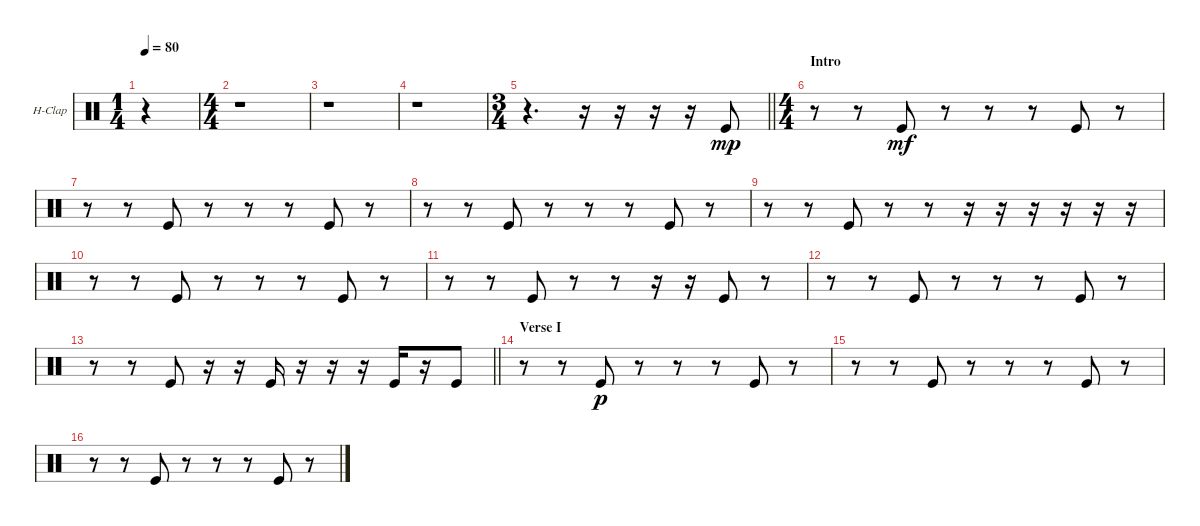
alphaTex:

\bracketExtendMode groupsimilarinstruments
\firstSystemTrackNameOrientation horizontal
\otherSystemsTrackNameOrientation horizontal
\track ("Hand Clap" "H-Clap") {instrument percussion}
\staff {score}
\articulation defaults
\voice
\ts (1 4)
\beaming (8 2)
\tempo 80
\clef neutral
\ks c
r.4{dy mp} |
\ts (4 4)
\beaming (8 2 2 2 2)
r.1 |
r.1 |
r.1 |
\ts (3 4)
\beaming (8 2 2 2)
\barLineRight lightlight
r.4{d} r.16 r.16 r.16 r.16 "Kick (hit)".8 |
\ts (4 4)
\beaming (8 2 2 2 2)
\section ("" "Intro")
r.8 r.8 "Kick (hit)".8{dy mf} r.8 r.8 r.8 "Kick (hit)".8 r.8 |
r.8 r.8 "Kick (hit)".8 r.8 r.8 r.8 "Kick (hit)".8 r.8 |
r.8 r.8 "Kick (hit)".8 r.8 r.8 r.8 "Kick (hit)".8 r.8 |
r.8 r.8 "Kick (hit)".8 r.8 r.8 r.16 r.16 r.16 r.16 r.16 r.16 |
r.8 r.8 "Kick (hit)".8 r.8 r.8 r.8 "Kick (hit)".8 r.8 |
r.8 r.8 "Kick (hit)".8 r.8 r.8 r.16 r.16 "Kick (hit)".8 r.8 |
r.8 r.8 "Kick (hit)".8 r.8 r.8 r.8 "Kick (hit)".8 r.8 |
\barLineRight lightlight
r.8 r.8 "Kick (hit)".8 r.16 r.16 "Kick (hit)".16 r.16 r.16 r.16 "Kick (hit)".16 r.16 "Kick (hit)".8 |
\section ("" "Verse I")
r.8 r.8 "Kick (hit)".8{dy p} r.8 r.8 r.8 "Kick (hit)".8 r.8 |
r.8 r.8 "Kick (hit)".8 r.8 r.8 r.8 "Kick (hit)".8 r.8 |
r.8 r.8 "Kick (hit)".8 r.8 r.8 r.8 "Kick (hit)".8 r.8
\voice
\clef neutral
\ottava regular
\simile none
\ks c
r.4{dy mf} |
|
|
|
\barLineRight lightlight
|
|
|
|
|
|
|
|
\barLineRight lightlight
|
|
|
